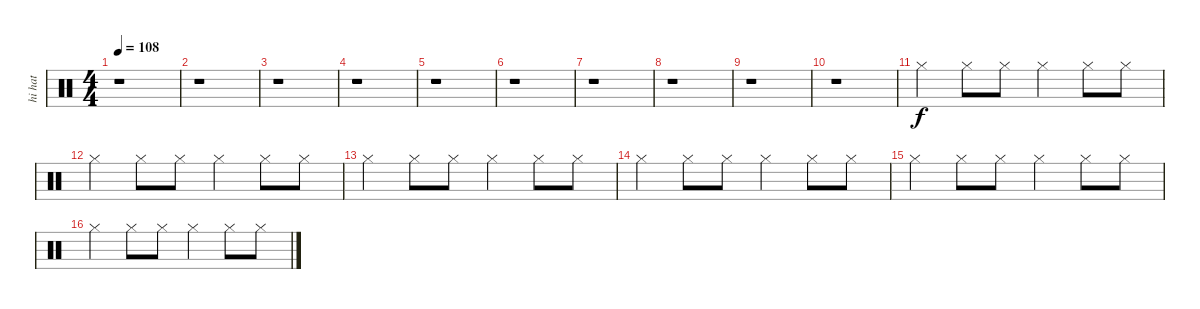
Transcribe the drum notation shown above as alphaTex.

\track ("hi hat              " "hi hat    ") {instrument percussion}
\staff {score}
\articulation defaults
\ts (4 4)
\tempo 108
\clef neutral
\ks c
r.1{dy f} |
r.1 |
r.1 |
r.1 |
r.1 |
r.1 |
r.1 |
r.1 |
r.1 |
r.1 |
"Hi-Hat (closed)".4 "Hi-Hat (closed)".8 "Hi-Hat (closed)".8 "Hi-Hat (closed)".4 "Hi-Hat (closed)".8 "Hi-Hat (closed)".8 |
"Hi-Hat (closed)".4 "Hi-Hat (closed)".8 "Hi-Hat (closed)".8 "Hi-Hat (closed)".4 "Hi-Hat (closed)".8 "Hi-Hat (closed)".8 |
"Hi-Hat (closed)".4 "Hi-Hat (closed)".8 "Hi-Hat (closed)".8 "Hi-Hat (closed)".4 "Hi-Hat (closed)".8 "Hi-Hat (closed)".8 |
"Hi-Hat (closed)".4 "Hi-Hat (closed)".8 "Hi-Hat (closed)".8 "Hi-Hat (closed)".4 "Hi-Hat (closed)".8 "Hi-Hat (closed)".8 |
"Hi-Hat (closed)".4 "Hi-Hat (closed)".8 "Hi-Hat (closed)".8 "Hi-Hat (closed)".4 "Hi-Hat (closed)".8 "Hi-Hat (closed)".8 |
"Hi-Hat (closed)".4 "Hi-Hat (closed)".8 "Hi-Hat (closed)".8 "Hi-Hat (closed)".4 "Hi-Hat (closed)".8 "Hi-Hat (closed)".8
